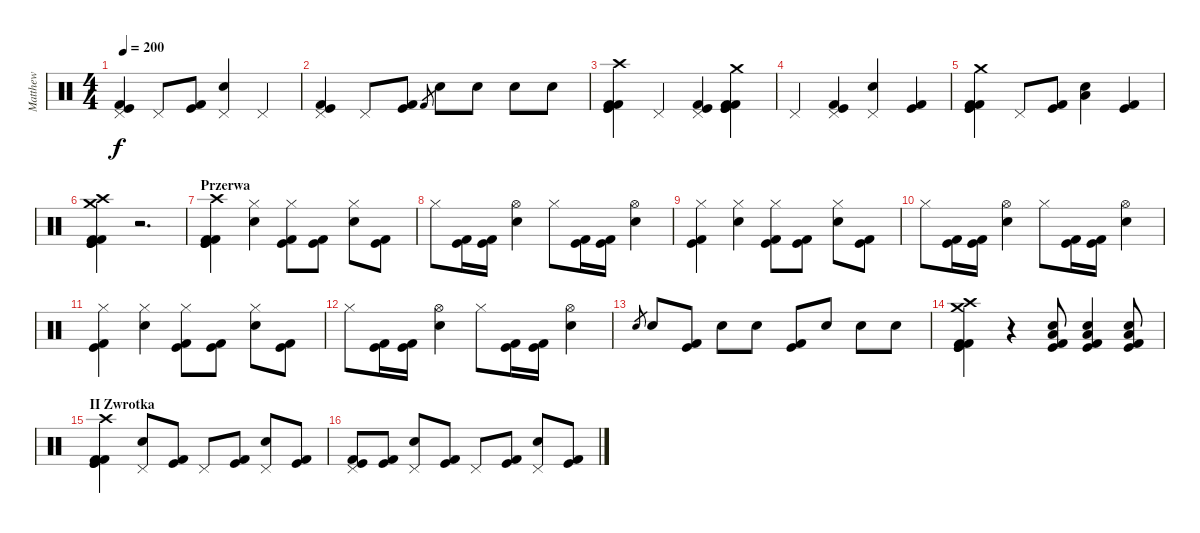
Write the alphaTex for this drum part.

\track ("Matthew" "Matthew") {instrument percussion}
\staff {score}
\articulation defaults
\ts (4 4)
\tempo 200
\clef neutral
\ks c
("Kick (hit) 2" "Kick (hit)" "Pedal Hi-Hat (hit)").4{dy f} "Pedal Hi-Hat (hit)".8 ("Kick (hit) 2" "Kick (hit)").8 ("Pedal Hi-Hat (hit)" "Snare (hit) 2").4 "Pedal Hi-Hat (hit)".4 |
("Kick (hit) 2" "Kick (hit)" "Pedal Hi-Hat (hit)").4 "Pedal Hi-Hat (hit)".8 ("Kick (hit) 2" "Kick (hit)").8 "Kick (hit) 2".8{gr} "Snare (hit) 2".8 "Snare (hit) 2".8 "Snare (hit) 2".8 "Snare (hit) 2".8 |
("Kick (hit) 2" "Kick (hit)" "Kick (hit) 2" "Kick (hit)" "Crash high (hit)").4 "Pedal Hi-Hat (hit)".4 ("Pedal Hi-Hat (hit)" "Kick (hit)" "Kick (hit) 2").4 ("Kick (hit) 2" "Kick (hit)" "Kick (hit)" "Kick (hit) 2" "Crash medium (hit)").4 |
"Pedal Hi-Hat (hit)".4 ("Pedal Hi-Hat (hit)" "Kick (hit) 2" "Kick (hit)").4 ("Snare (hit) 2" "Pedal Hi-Hat (hit)").4 ("Kick (hit)" "Kick (hit) 2").4 |
("Kick (hit)" "Kick (hit)" "Kick (hit) 2" "Kick (hit) 2" "Crash medium (hit)").4 "Pedal Hi-Hat (hit)".8 ("Kick (hit) 2" "Kick (hit)").8 ("Snare (hit) 2" "Low Tom (hit)").4 ("Kick (hit) 2" "Kick (hit)").4 |
("Kick (hit)" "Kick (hit) 2" "Kick (hit)" "Kick (hit) 2" "Crash high (hit)" "Crash medium (hit)").4 r.2{d} |
\section ("" "Przerwa")
("Crash high (hit)" "Kick (hit) 2" "Kick (hit)" "Kick (hit)" "Kick (hit) 2").4 ("Hi-Hat (closed)" "Snare (hit) 2").4 ("Hi-Hat (closed)" "Kick (hit) 2" "Kick (hit)").8 ("Kick (hit) 2" "Kick (hit)").8 ("Snare (hit) 2" "Hi-Hat (closed)").8 ("Kick (hit) 2" "Kick (hit)").8 |
"Hi-Hat (closed)".8 ("Kick (hit) 2" "Kick (hit)").16 ("Kick (hit) 2" "Kick (hit)").16 ("Hi-Hat (open)" "Snare (hit) 2").4 "Hi-Hat (closed)".8 ("Kick (hit) 2" "Kick (hit)").16 ("Kick (hit) 2" "Kick (hit)").16 ("Snare (hit) 2" "Hi-Hat (open)").4 |
("Hi-Hat (closed)" "Kick (hit)" "Kick (hit) 2").4 ("Hi-Hat (closed)" "Snare (hit) 2").4 ("Hi-Hat (closed)" "Kick (hit) 2" "Kick (hit)").8 ("Kick (hit) 2" "Kick (hit)").8 ("Snare (hit) 2" "Hi-Hat (closed)").8 ("Kick (hit) 2" "Kick (hit)").8 |
"Hi-Hat (closed)".8 ("Kick (hit) 2" "Kick (hit)").16 ("Kick (hit) 2" "Kick (hit)").16 ("Hi-Hat (open)" "Snare (hit) 2").4 "Hi-Hat (closed)".8 ("Kick (hit) 2" "Kick (hit)").16 ("Kick (hit) 2" "Kick (hit)").16 ("Snare (hit) 2" "Hi-Hat (open)").4 |
("Hi-Hat (closed)" "Kick (hit)" "Kick (hit) 2").4 ("Hi-Hat (closed)" "Snare (hit) 2").4 ("Hi-Hat (closed)" "Kick (hit) 2" "Kick (hit)").8 ("Kick (hit) 2" "Kick (hit)").8 ("Snare (hit) 2" "Hi-Hat (closed)").8 ("Kick (hit) 2" "Kick (hit)").8 |
"Hi-Hat (closed)".8 ("Kick (hit) 2" "Kick (hit)").16 ("Kick (hit) 2" "Kick (hit)").16 ("Hi-Hat (open)" "Snare (hit) 2").4 "Hi-Hat (closed)".8 ("Kick (hit) 2" "Kick (hit)").16 ("Kick (hit) 2" "Kick (hit)").16 ("Snare (hit) 2" "Hi-Hat (open)").4 |
"Snare (hit) 2".8{gr} "Snare (hit) 2".8 ("Kick (hit) 2" "Kick (hit)").8 "Snare (hit) 2".8 "Snare (hit) 2".8 ("Kick (hit) 2" "Kick (hit)").8 "Snare (hit) 2".8 "Snare (hit) 2".8 "Snare (hit) 2".8 |
("Kick (hit) 2" "Kick (hit)" "Kick (hit) 2" "Kick (hit)" "Crash high (hit)" "Crash medium (hit)").4 r.4 ("Kick (hit)" "Kick (hit) 2" "Snare (hit) 2" "Low Tom (hit)").8 ("Kick (hit)" "Kick (hit) 2" "Snare (hit) 2" "Low Tom (hit)").4 ("Kick (hit) 2" "Kick (hit)" "Snare (hit) 2" "Low Tom (hit)").8 |
\section ("" "II Zwrotka")
("Kick (hit) 2" "Kick (hit)" "Kick (hit)" "Kick (hit) 2" "Crash high (hit)").4 ("Pedal Hi-Hat (hit)" "Snare (hit) 2").8 ("Kick (hit)" "Kick (hit) 2").8 "Pedal Hi-Hat (hit)".8 ("Kick (hit)" "Kick (hit) 2").8 ("Snare (hit) 2" "Pedal Hi-Hat (hit)").8 ("Kick (hit)" "Kick (hit) 2").8 |
("Kick (hit) 2" "Kick (hit)" "Pedal Hi-Hat (hit)").8 ("Kick (hit) 2" "Kick (hit)").8 ("Snare (hit) 2" "Pedal Hi-Hat (hit)").8 ("Kick (hit) 2" "Kick (hit)").8 "Pedal Hi-Hat (hit)".8 ("Kick (hit) 2" "Kick (hit)").8 ("Pedal Hi-Hat (hit)" "Snare (hit) 2").8 ("Kick (hit) 2" "Kick (hit)").8
